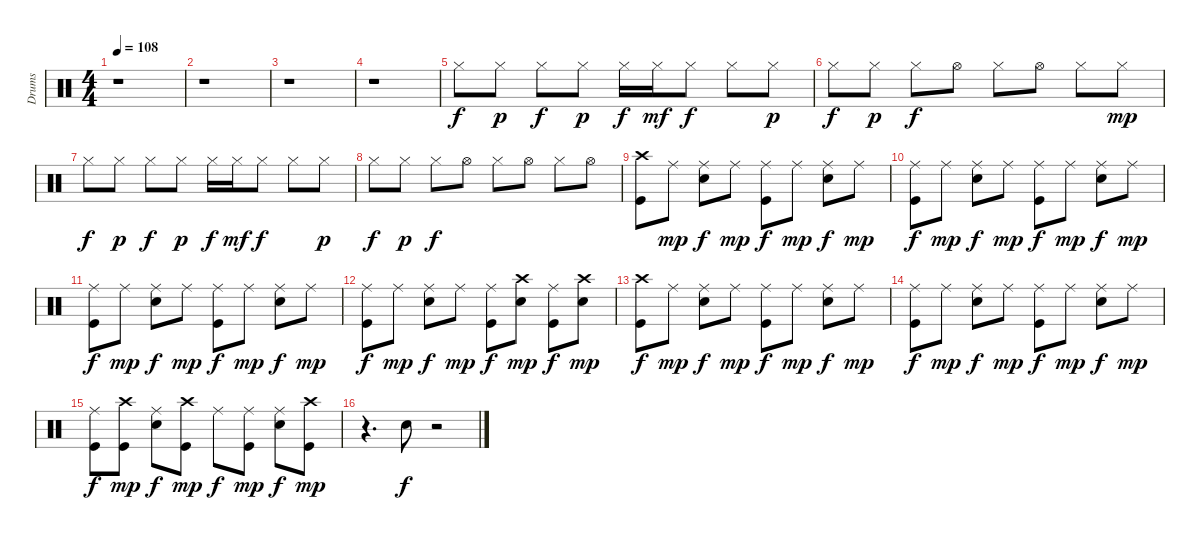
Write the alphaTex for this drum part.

\track ("Drums" "Drums") {instrument percussion}
\staff {score}
\articulation defaults
\ts (4 4)
\tempo 108
\clef neutral
\ks c
r.1{dy f} |
r.1 |
r.1 |
r.1 |
"Hi-Hat (closed)".8 "Hi-Hat (closed)".8{dy p} "Hi-Hat (closed)".8{dy f} "Hi-Hat (closed)".8{dy p} "Hi-Hat (closed)".16{dy f} "Hi-Hat (closed)".16{dy mf} "Hi-Hat (closed)".8{dy f} "Hi-Hat (closed)".8 "Hi-Hat (closed)".8{dy p} |
"Hi-Hat (closed)".8{dy f} "Hi-Hat (closed)".8{dy p} "Hi-Hat (closed)".8{dy f} "Hi-Hat (open)".8 "Hi-Hat (closed)".8 "Hi-Hat (open)".8 "Hi-Hat (closed)".8 "Hi-Hat (closed)".8{dy mp} |
"Hi-Hat (closed)".8{dy f} "Hi-Hat (closed)".8{dy p} "Hi-Hat (closed)".8{dy f} "Hi-Hat (closed)".8{dy p} "Hi-Hat (closed)".16{dy f} "Hi-Hat (closed)".16{dy mf} "Hi-Hat (closed)".8{dy f} "Hi-Hat (closed)".8 "Hi-Hat (closed)".8{dy p} |
"Hi-Hat (closed)".8{dy f} "Hi-Hat (closed)".8{dy p} "Hi-Hat (closed)".8{dy f} "Hi-Hat (open)".8 "Hi-Hat (closed)".8 "Hi-Hat (open)".8 "Hi-Hat (closed)".8 "Hi-Hat (open)".8 |
("Crash high (hit)" "Kick (hit)").8 "Ride (middle)".8{dy mp} ("Ride (middle)" "Snare (hit) 2").8{dy f} "Ride (middle)".8{dy mp} ("Ride (middle)" "Kick (hit)").8{dy f} "Ride (middle)".8{dy mp} ("Ride (middle)" "Snare (hit) 2").8{dy f} "Ride (middle)".8{dy mp} |
("Ride (middle)" "Kick (hit)").8{dy f} "Ride (middle)".8{dy mp} ("Ride (middle)" "Snare (hit) 2").8{dy f} "Ride (middle)".8{dy mp} ("Ride (middle)" "Kick (hit)").8{dy f} "Ride (middle)".8{dy mp} ("Ride (middle)" "Snare (hit) 2").8{dy f} "Ride (middle)".8{dy mp} |
("Ride (middle)" "Kick (hit)").8{dy f} "Ride (middle)".8{dy mp} ("Ride (middle)" "Snare (hit) 2").8{dy f} "Ride (middle)".8{dy mp} ("Ride (middle)" "Kick (hit)").8{dy f} "Ride (middle)".8{dy mp} ("Ride (middle)" "Snare (hit) 2").8{dy f} "Ride (middle)".8{dy mp} |
("Ride (middle)" "Kick (hit)").8{dy f} "Ride (middle)".8{dy mp} ("Ride (middle)" "Snare (hit) 2").8{dy f} "Ride (middle)".8{dy mp} ("Ride (middle)" "Kick (hit)").8{dy f} ("Crash high (hit)" "Snare (hit) 2").8{dy mp} ("Ride (middle)" "Kick (hit)").8{dy f} ("Crash high (hit)" "Snare (hit) 2").8{dy mp} |
("Crash high (hit)" "Kick (hit)").8{dy f} "Ride (middle)".8{dy mp} ("Ride (middle)" "Snare (hit) 2").8{dy f} "Ride (middle)".8{dy mp} ("Ride (middle)" "Kick (hit)").8{dy f} "Ride (middle)".8{dy mp} ("Ride (middle)" "Snare (hit) 2").8{dy f} "Ride (middle)".8{dy mp} |
("Ride (middle)" "Kick (hit)").8{dy f} "Ride (middle)".8{dy mp} ("Ride (middle)" "Snare (hit) 2").8{dy f} "Ride (middle)".8{dy mp} ("Ride (middle)" "Kick (hit)").8{dy f} "Ride (middle)".8{dy mp} ("Ride (middle)" "Snare (hit) 2").8{dy f} "Ride (middle)".8{dy mp} |
("Ride (middle)" "Kick (hit)").8{dy f} ("Crash high (hit)" "Kick (hit)").8{dy mp} ("Ride (middle)" "Snare (hit) 2").8{dy f} ("Crash high (hit)" "Kick (hit)").8{dy mp} "Ride (middle)".8{dy f} ("Ride (middle)" "Kick (hit)").8{dy mp} ("Ride (middle)" "Snare (hit) 2").8{dy f} ("Crash high (hit)" "Kick (hit)").8{dy mp} |
r.4{d} "Snare (hit) 2".8{dy f} r.2
